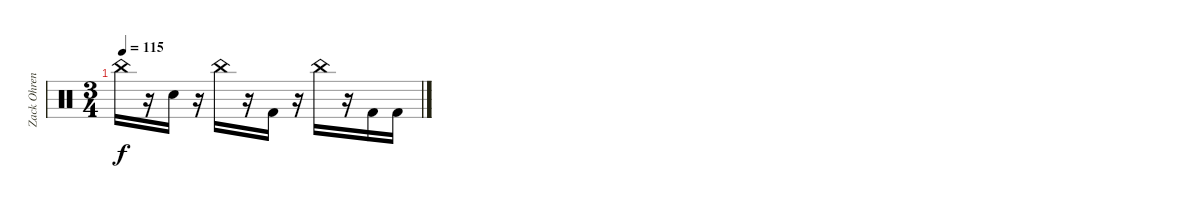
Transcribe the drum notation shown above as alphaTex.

\track ("Zack Ohren" "Zack Ohren") {instrument percussion}
\staff {score}
\articulation defaults
\ts (3 4)
\tempo 115
\clef neutral
\ks c "China (hit)".16{dy f}
r.16 "Electric Snare (hit)".16 r.16 "China (hit)".16 r.16 "Kick (hit) 2".16 r.16 "China (hit)".16 r.16 "Kick (hit) 2".16 "Kick (hit) 2".16
